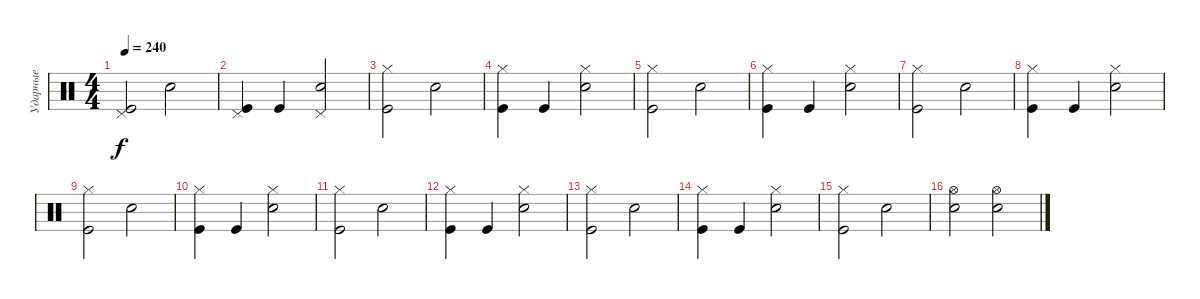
\track ("Ударные" "Ударные") {instrument percussion}
\staff {score}
\articulation defaults
\ts (4 4)
\tempo 240
\clef neutral
\ks c
("Pedal Hi-Hat (hit)" "Kick (hit)").2{dy f} "Snare (hit) 2".2 |
("Pedal Hi-Hat (hit)" "Kick (hit)").4 "Kick (hit)".4 ("Pedal Hi-Hat (hit)" "Snare (hit) 2").2 |
("Hi-Hat (closed)" "Kick (hit)").2 "Snare (hit) 2".2 |
("Hi-Hat (closed)" "Kick (hit)").4 "Kick (hit)".4 ("Hi-Hat (closed)" "Snare (hit) 2").2 |
("Hi-Hat (closed)" "Kick (hit)").2 "Snare (hit) 2".2 |
("Hi-Hat (closed)" "Kick (hit)").4 "Kick (hit)".4 ("Hi-Hat (closed)" "Snare (hit) 2").2 |
("Hi-Hat (closed)" "Kick (hit)").2 "Snare (hit) 2".2 |
("Hi-Hat (closed)" "Kick (hit)").4 "Kick (hit)".4 ("Hi-Hat (closed)" "Snare (hit) 2").2 |
("Hi-Hat (closed)" "Kick (hit)").2 "Snare (hit) 2".2 |
("Hi-Hat (closed)" "Kick (hit)").4 "Kick (hit)".4 ("Hi-Hat (closed)" "Snare (hit) 2").2 |
("Hi-Hat (closed)" "Kick (hit)").2 "Snare (hit) 2".2 |
("Hi-Hat (closed)" "Kick (hit)").4 "Kick (hit)".4 ("Hi-Hat (closed)" "Snare (hit) 2").2 |
("Hi-Hat (closed)" "Kick (hit)").2 "Snare (hit) 2".2 |
("Hi-Hat (closed)" "Kick (hit)").4 "Kick (hit)".4 ("Hi-Hat (closed)" "Snare (hit) 2").2 |
("Hi-Hat (closed)" "Kick (hit)").2 "Snare (hit) 2".2 |
("Hi-Hat (open)" "Snare (hit) 2").2 ("Hi-Hat (open)" "Snare (hit) 2").2
